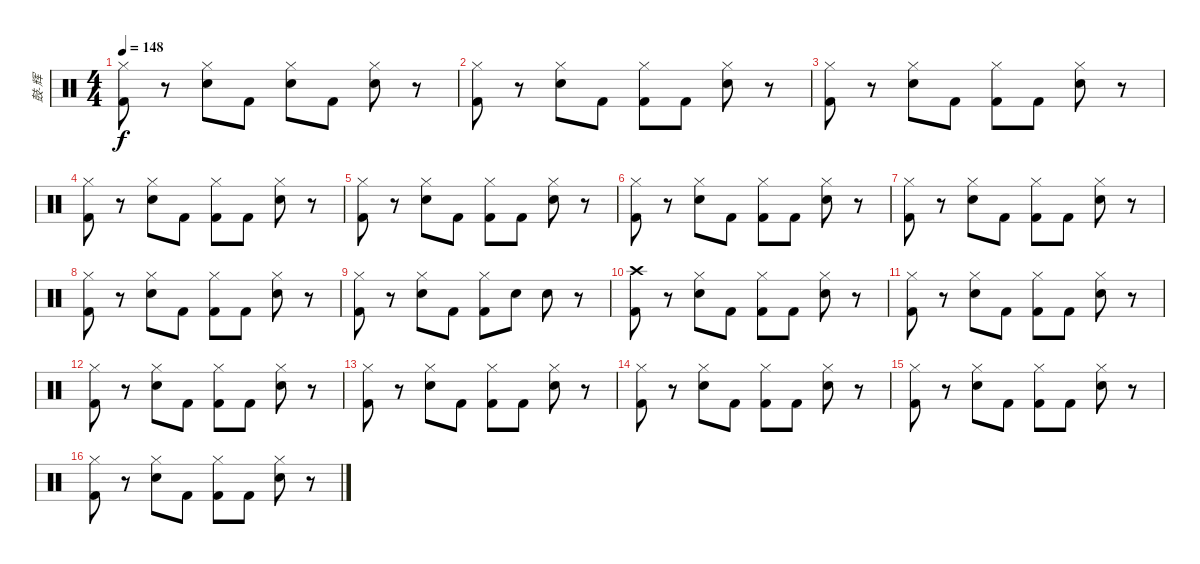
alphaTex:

\track ("鼓-辉" "鼓-辉") {instrument percussion}
\staff {score}
\articulation defaults
\ts (4 4)
\tempo 148
\clef neutral
\ks c
("Hi-Hat (closed)" "Kick (hit) 2").8{dy f} r.8 ("Hi-Hat (closed)" "Snare (hit) 2").8 "Kick (hit) 2".8 ("Hi-Hat (closed)" "Snare (hit) 2").8 "Kick (hit) 2".8 ("Hi-Hat (closed)" "Snare (hit) 2").8 r.8 |
("Hi-Hat (closed)" "Kick (hit) 2").8 r.8 ("Hi-Hat (closed)" "Snare (hit) 2").8 "Kick (hit) 2".8 ("Hi-Hat (closed)" "Kick (hit) 2").8 "Kick (hit) 2".8 ("Hi-Hat (closed)" "Snare (hit) 2").8 r.8 |
("Hi-Hat (closed)" "Kick (hit) 2").8 r.8 ("Hi-Hat (closed)" "Snare (hit) 2").8 "Kick (hit) 2".8 ("Hi-Hat (closed)" "Kick (hit) 2").8 "Kick (hit) 2".8 ("Hi-Hat (closed)" "Snare (hit) 2").8 r.8 |
("Hi-Hat (closed)" "Kick (hit) 2").8 r.8 ("Hi-Hat (closed)" "Snare (hit) 2").8 "Kick (hit) 2".8 ("Hi-Hat (closed)" "Kick (hit) 2").8 "Kick (hit) 2".8 ("Hi-Hat (closed)" "Snare (hit) 2").8 r.8 |
("Hi-Hat (closed)" "Kick (hit) 2").8 r.8 ("Hi-Hat (closed)" "Snare (hit) 2").8 "Kick (hit) 2".8 ("Hi-Hat (closed)" "Kick (hit) 2").8 "Kick (hit) 2".8 ("Hi-Hat (closed)" "Snare (hit) 2").8 r.8 |
("Hi-Hat (closed)" "Kick (hit) 2").8 r.8 ("Hi-Hat (closed)" "Snare (hit) 2").8 "Kick (hit) 2".8 ("Hi-Hat (closed)" "Kick (hit) 2").8 "Kick (hit) 2".8 ("Hi-Hat (closed)" "Snare (hit) 2").8 r.8 |
("Hi-Hat (closed)" "Kick (hit) 2").8 r.8 ("Hi-Hat (closed)" "Snare (hit) 2").8 "Kick (hit) 2".8 ("Hi-Hat (closed)" "Kick (hit) 2").8 "Kick (hit) 2".8 ("Hi-Hat (closed)" "Snare (hit) 2").8 r.8 |
("Hi-Hat (closed)" "Kick (hit) 2").8 r.8 ("Hi-Hat (closed)" "Snare (hit) 2").8 "Kick (hit) 2".8 ("Hi-Hat (closed)" "Kick (hit) 2").8 "Kick (hit) 2".8 ("Hi-Hat (closed)" "Snare (hit) 2").8 r.8 |
("Hi-Hat (closed)" "Kick (hit) 2").8 r.8 ("Hi-Hat (closed)" "Snare (hit) 2").8 "Kick (hit) 2".8 ("Hi-Hat (closed)" "Kick (hit) 2").8 "Snare (hit) 2".8 "Snare (hit) 2".8 r.8 |
("Crash high (hit)" "Kick (hit) 2").8 r.8 ("Hi-Hat (closed)" "Snare (hit) 2").8 "Kick (hit) 2".8 ("Hi-Hat (closed)" "Kick (hit) 2").8 "Kick (hit) 2".8 ("Hi-Hat (closed)" "Snare (hit) 2").8 r.8 |
("Hi-Hat (closed)" "Kick (hit) 2").8 r.8 ("Hi-Hat (closed)" "Snare (hit) 2").8 "Kick (hit) 2".8 ("Hi-Hat (closed)" "Kick (hit) 2").8 "Kick (hit) 2".8 ("Hi-Hat (closed)" "Snare (hit) 2").8 r.8 |
("Hi-Hat (closed)" "Kick (hit) 2").8 r.8 ("Hi-Hat (closed)" "Snare (hit) 2").8 "Kick (hit) 2".8 ("Hi-Hat (closed)" "Kick (hit) 2").8 "Kick (hit) 2".8 ("Hi-Hat (closed)" "Snare (hit) 2").8 r.8 |
("Hi-Hat (closed)" "Kick (hit) 2").8 r.8 ("Hi-Hat (closed)" "Snare (hit) 2").8 "Kick (hit) 2".8 ("Hi-Hat (closed)" "Kick (hit) 2").8 "Kick (hit) 2".8 ("Hi-Hat (closed)" "Snare (hit) 2").8 r.8 |
("Hi-Hat (closed)" "Kick (hit) 2").8 r.8 ("Hi-Hat (closed)" "Snare (hit) 2").8 "Kick (hit) 2".8 ("Hi-Hat (closed)" "Kick (hit) 2").8 "Kick (hit) 2".8 ("Hi-Hat (closed)" "Snare (hit) 2").8 r.8 |
("Hi-Hat (closed)" "Kick (hit) 2").8 r.8 ("Hi-Hat (closed)" "Snare (hit) 2").8 "Kick (hit) 2".8 ("Hi-Hat (closed)" "Kick (hit) 2").8 "Kick (hit) 2".8 ("Hi-Hat (closed)" "Snare (hit) 2").8 r.8 |
("Hi-Hat (closed)" "Kick (hit) 2").8 r.8 ("Hi-Hat (closed)" "Snare (hit) 2").8 "Kick (hit) 2".8 ("Hi-Hat (closed)" "Kick (hit) 2").8 "Kick (hit) 2".8 ("Hi-Hat (closed)" "Snare (hit) 2").8 r.8
